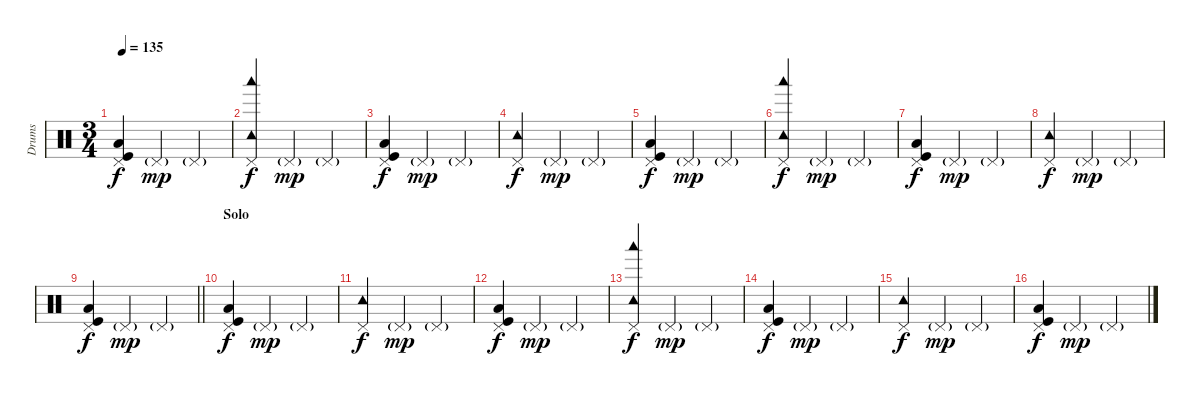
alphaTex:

\track ("Drums" "Drums") {instrument percussion}
\staff {score}
\articulation defaults
\ts (3 4)
\tempo 135
\clef neutral
\ks c
("Pedal Hi-Hat (hit)" "Low Floor Tom (hit)" "Kick (hit)").4{dy f} "Pedal Hi-Hat (hit)"{g}.4{dy mp} "Pedal Hi-Hat (hit)"{g}.4 |
("Pedal Hi-Hat (hit)" "Woodblock low (hit)" "Tambourine (hit)").4{dy f} "Pedal Hi-Hat (hit)"{g}.4{dy mp} "Pedal Hi-Hat (hit)"{g}.4 |
("Pedal Hi-Hat (hit)" "Low Floor Tom (hit)" "Kick (hit)").4{dy f} "Pedal Hi-Hat (hit)"{g}.4{dy mp} "Pedal Hi-Hat (hit)"{g}.4 |
("Pedal Hi-Hat (hit)" "Tambourine (hit)").4{dy f} "Pedal Hi-Hat (hit)"{g}.4{dy mp} "Pedal Hi-Hat (hit)"{g}.4 |
("Pedal Hi-Hat (hit)" "Low Floor Tom (hit)" "Kick (hit)").4{dy f} "Pedal Hi-Hat (hit)"{g}.4{dy mp} "Pedal Hi-Hat (hit)"{g}.4 |
("Pedal Hi-Hat (hit)" "Woodblock low (hit)" "Tambourine (hit)").4{dy f} "Pedal Hi-Hat (hit)"{g}.4{dy mp} "Pedal Hi-Hat (hit)"{g}.4 |
("Pedal Hi-Hat (hit)" "Low Floor Tom (hit)" "Kick (hit)").4{dy f} "Pedal Hi-Hat (hit)"{g}.4{dy mp} "Pedal Hi-Hat (hit)"{g}.4 |
("Pedal Hi-Hat (hit)" "Tambourine (hit)").4{dy f} "Pedal Hi-Hat (hit)"{g}.4{dy mp} "Pedal Hi-Hat (hit)"{g}.4 |
\barLineRight lightlight
("Pedal Hi-Hat (hit)" "Low Floor Tom (hit)" "Kick (hit)").4{dy f} "Pedal Hi-Hat (hit)"{g}.4{dy mp} "Pedal Hi-Hat (hit)"{g}.4 |
\section ("" "Solo")
("Pedal Hi-Hat (hit)" "Low Floor Tom (hit)" "Kick (hit)").4{dy f} "Pedal Hi-Hat (hit)"{g}.4{dy mp} "Pedal Hi-Hat (hit)"{g}.4 |
("Pedal Hi-Hat (hit)" "Tambourine (hit)").4{dy f} "Pedal Hi-Hat (hit)"{g}.4{dy mp} "Pedal Hi-Hat (hit)"{g}.4 |
("Pedal Hi-Hat (hit)" "Low Floor Tom (hit)" "Kick (hit)").4{dy f} "Pedal Hi-Hat (hit)"{g}.4{dy mp} "Pedal Hi-Hat (hit)"{g}.4 |
("Pedal Hi-Hat (hit)" "Woodblock low (hit)" "Tambourine (hit)").4{dy f} "Pedal Hi-Hat (hit)"{g}.4{dy mp} "Pedal Hi-Hat (hit)"{g}.4 |
("Pedal Hi-Hat (hit)" "Low Floor Tom (hit)" "Kick (hit)").4{dy f} "Pedal Hi-Hat (hit)"{g}.4{dy mp} "Pedal Hi-Hat (hit)"{g}.4 |
("Pedal Hi-Hat (hit)" "Tambourine (hit)").4{dy f} "Pedal Hi-Hat (hit)"{g}.4{dy mp} "Pedal Hi-Hat (hit)"{g}.4 |
("Pedal Hi-Hat (hit)" "Low Floor Tom (hit)" "Kick (hit)").4{dy f} "Pedal Hi-Hat (hit)"{g}.4{dy mp} "Pedal Hi-Hat (hit)"{g}.4
